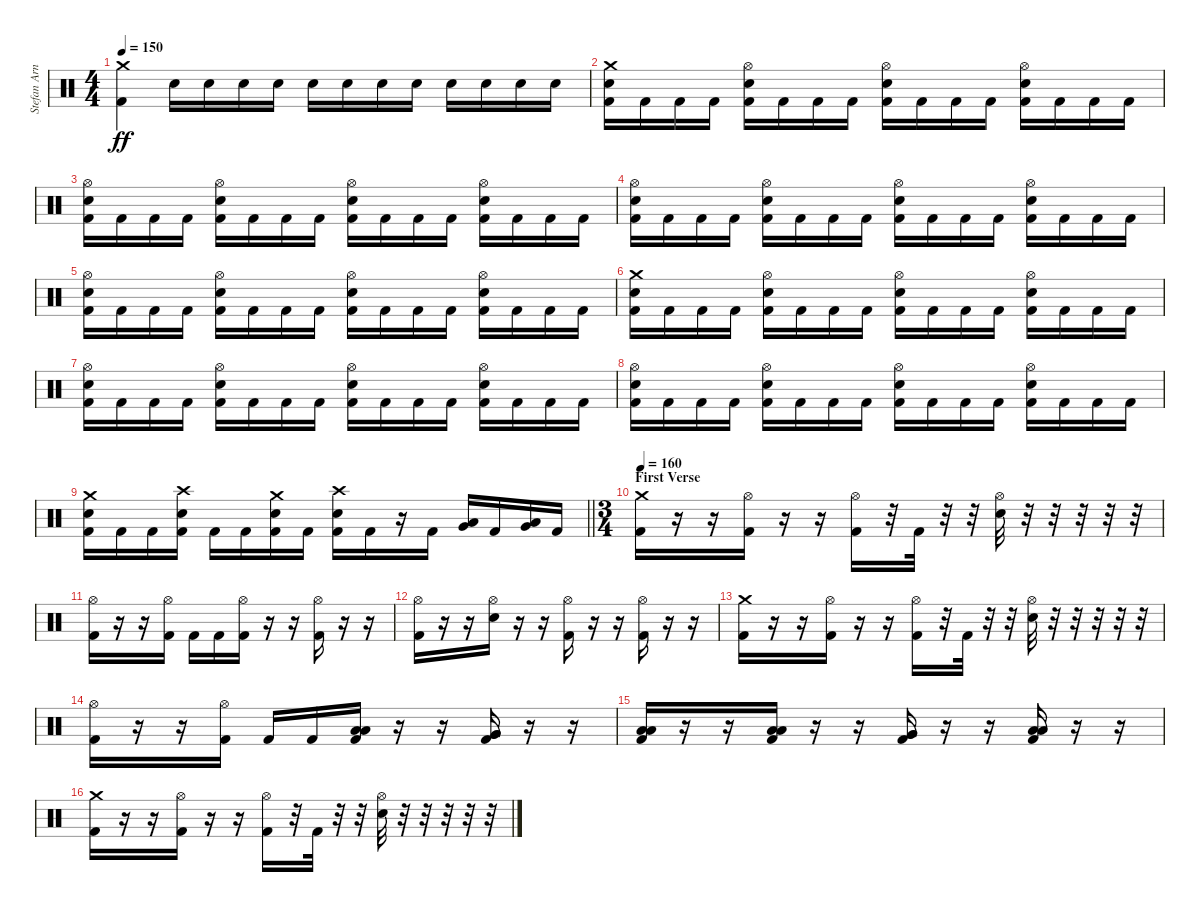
\track ("Stefan Arnold" "Stefan Arn") {instrument percussion}
\staff {score}
\articulation defaults
\ts (4 4)
\tempo 150
\clef neutral
\ks c
("Crash medium (hit)" "Kick (hit) 2").4{dy ff} "Electric Snare (hit)".16 "Electric Snare (hit)".16 "Electric Snare (hit)".16 "Electric Snare (hit)".16 "Electric Snare (hit)".16 "Electric Snare (hit)".16 "Electric Snare (hit)".16 "Electric Snare (hit)".16 "Electric Snare (hit)".16 "Electric Snare (hit)".16 "Electric Snare (hit)".16 "Electric Snare (hit)".16 |
("Crash medium (hit)" "Electric Snare (hit)" "Kick (hit) 2").16 "Kick (hit) 2".16 "Kick (hit) 2".16 "Kick (hit) 2".16 ("Hi-Hat (open)" "Electric Snare (hit)" "Kick (hit) 2").16 "Kick (hit) 2".16 "Kick (hit) 2".16 "Kick (hit) 2".16 ("Hi-Hat (open)" "Electric Snare (hit)" "Kick (hit) 2").16 "Kick (hit) 2".16 "Kick (hit) 2".16 "Kick (hit) 2".16 ("Hi-Hat (open)" "Electric Snare (hit)" "Kick (hit) 2").16 "Kick (hit) 2".16 "Kick (hit) 2".16 "Kick (hit) 2".16 |
("Hi-Hat (open)" "Electric Snare (hit)" "Kick (hit) 2").16 "Kick (hit) 2".16 "Kick (hit) 2".16 "Kick (hit) 2".16 ("Hi-Hat (open)" "Electric Snare (hit)" "Kick (hit) 2").16 "Kick (hit) 2".16 "Kick (hit) 2".16 "Kick (hit) 2".16 ("Hi-Hat (open)" "Electric Snare (hit)" "Kick (hit) 2").16 "Kick (hit) 2".16 "Kick (hit) 2".16 "Kick (hit) 2".16 ("Hi-Hat (open)" "Electric Snare (hit)" "Kick (hit) 2").16 "Kick (hit) 2".16 "Kick (hit) 2".16 "Kick (hit) 2".16 |
("Hi-Hat (open)" "Electric Snare (hit)" "Kick (hit) 2").16 "Kick (hit) 2".16 "Kick (hit) 2".16 "Kick (hit) 2".16 ("Hi-Hat (open)" "Electric Snare (hit)" "Kick (hit) 2").16 "Kick (hit) 2".16 "Kick (hit) 2".16 "Kick (hit) 2".16 ("Hi-Hat (open)" "Electric Snare (hit)" "Kick (hit) 2").16 "Kick (hit) 2".16 "Kick (hit) 2".16 "Kick (hit) 2".16 ("Hi-Hat (open)" "Electric Snare (hit)" "Kick (hit) 2").16 "Kick (hit) 2".16 "Kick (hit) 2".16 "Kick (hit) 2".16 |
("Hi-Hat (open)" "Electric Snare (hit)" "Kick (hit) 2").16 "Kick (hit) 2".16 "Kick (hit) 2".16 "Kick (hit) 2".16 ("Hi-Hat (open)" "Electric Snare (hit)" "Kick (hit) 2").16 "Kick (hit) 2".16 "Kick (hit) 2".16 "Kick (hit) 2".16 ("Hi-Hat (open)" "Electric Snare (hit)" "Kick (hit) 2").16 "Kick (hit) 2".16 "Kick (hit) 2".16 "Kick (hit) 2".16 ("Hi-Hat (open)" "Electric Snare (hit)" "Kick (hit) 2").16 "Kick (hit) 2".16 "Kick (hit) 2".16 "Kick (hit) 2".16 |
("Crash medium (hit)" "Electric Snare (hit)" "Kick (hit) 2").16 "Kick (hit) 2".16 "Kick (hit) 2".16 "Kick (hit) 2".16 ("Hi-Hat (open)" "Electric Snare (hit)" "Kick (hit) 2").16 "Kick (hit) 2".16 "Kick (hit) 2".16 "Kick (hit) 2".16 ("Hi-Hat (open)" "Electric Snare (hit)" "Kick (hit) 2").16 "Kick (hit) 2".16 "Kick (hit) 2".16 "Kick (hit) 2".16 ("Hi-Hat (open)" "Electric Snare (hit)" "Kick (hit) 2").16 "Kick (hit) 2".16 "Kick (hit) 2".16 "Kick (hit) 2".16 |
("Hi-Hat (open)" "Electric Snare (hit)" "Kick (hit) 2").16 "Kick (hit) 2".16 "Kick (hit) 2".16 "Kick (hit) 2".16 ("Hi-Hat (open)" "Electric Snare (hit)" "Kick (hit) 2").16 "Kick (hit) 2".16 "Kick (hit) 2".16 "Kick (hit) 2".16 ("Hi-Hat (open)" "Electric Snare (hit)" "Kick (hit) 2").16 "Kick (hit) 2".16 "Kick (hit) 2".16 "Kick (hit) 2".16 ("Hi-Hat (open)" "Electric Snare (hit)" "Kick (hit) 2").16 "Kick (hit) 2".16 "Kick (hit) 2".16 "Kick (hit) 2".16 |
("Hi-Hat (open)" "Electric Snare (hit)" "Kick (hit) 2").16 "Kick (hit) 2".16 "Kick (hit) 2".16 "Kick (hit) 2".16 ("Hi-Hat (open)" "Electric Snare (hit)" "Kick (hit) 2").16 "Kick (hit) 2".16 "Kick (hit) 2".16 "Kick (hit) 2".16 ("Hi-Hat (open)" "Electric Snare (hit)" "Kick (hit) 2").16 "Kick (hit) 2".16 "Kick (hit) 2".16 "Kick (hit) 2".16 ("Hi-Hat (open)" "Electric Snare (hit)" "Kick (hit) 2").16 "Kick (hit) 2".16 "Kick (hit) 2".16 "Kick (hit) 2".16 |
\barLineRight lightlight
("Crash medium (hit)" "Electric Snare (hit)" "Kick (hit) 2").16 "Kick (hit) 2".16 "Kick (hit) 2".16 ("Crash high (hit)" "Electric Snare (hit)" "Kick (hit) 2").16 "Kick (hit) 2".16 "Kick (hit) 2".16 ("Crash medium (hit)" "Electric Snare (hit)" "Kick (hit) 2").16 "Kick (hit) 2".16 ("Crash high (hit)" "Electric Snare (hit)" "Kick (hit) 2").16 "Kick (hit) 2".16 r.16 "Kick (hit) 2".16 ("Very Low Tom (hit)" "Low Tom (hit)").16 "Kick (hit) 2".16 ("Very Low Tom (hit)" "Low Tom (hit)").16 "Kick (hit) 2".16 |
\ts (3 4)
\section ("" "First Verse")
\tempo 160
("Crash medium (hit)" "Kick (hit) 2").16 r.16 r.16 ("Hi-Hat (open)" "Kick (hit) 2").16 r.16 r.16 ("Hi-Hat (open)" "Kick (hit) 2").16 r.32 "Kick (hit) 2".32 r.32 r.32 ("Hi-Hat (open)" "Electric Snare (hit)").32 r.32 r.32 r.32 r.32 r.32 |
("Hi-Hat (open)" "Kick (hit) 2").16 r.16 r.16 ("Hi-Hat (open)" "Kick (hit) 2").16 "Kick (hit) 2".16 "Kick (hit) 2".16 ("Hi-Hat (open)" "Kick (hit) 2").16 r.16 r.16 ("Hi-Hat (open)" "Kick (hit) 2").16 r.16 r.16 |
("Hi-Hat (open)" "Kick (hit) 2").16 r.16 r.16 ("Hi-Hat (open)" "Electric Snare (hit)").16 r.16 r.16 ("Hi-Hat (open)" "Kick (hit) 2").16 r.16 r.16 ("Hi-Hat (open)" "Kick (hit) 2").16 r.16 r.16 |
("Crash medium (hit)" "Kick (hit) 2").16 r.16 r.16 ("Hi-Hat (open)" "Kick (hit) 2").16 r.16 r.16 ("Hi-Hat (open)" "Kick (hit) 2").16 r.32 "Kick (hit) 2".32 r.32 r.32 ("Hi-Hat (open)" "Electric Snare (hit)").32 r.32 r.32 r.32 r.32 r.32 |
("Hi-Hat (open)" "Kick (hit) 2").16 r.16 r.16 ("Hi-Hat (open)" "Kick (hit) 2").16 "Kick (hit) 2".16 "Kick (hit) 2".16 ("Low Tom (hit)" "Low Tom (hit)" "Kick (hit) 2").16 r.16 r.16 ("Very Low Tom (hit)" "Very Low Tom (hit)" "Kick (hit) 2").16 r.16 r.16 |
("Low Floor Tom (hit)" "Low Floor Tom (hit)" "Kick (hit) 2").16 r.16 r.16 ("Low Tom (hit)" "Low Tom (hit)" "Kick (hit) 2").16 r.16 r.16 ("Very Low Tom (hit)" "Very Low Tom (hit)" "Kick (hit) 2").16 r.16 r.16 ("Low Floor Tom (hit)" "Low Floor Tom (hit)" "Kick (hit) 2").16 r.16 r.16 |
("Crash medium (hit)" "Kick (hit) 2").16 r.16 r.16 ("Hi-Hat (open)" "Kick (hit) 2").16 r.16 r.16 ("Hi-Hat (open)" "Kick (hit) 2").16 r.32 "Kick (hit) 2".32 r.32 r.32 ("Hi-Hat (open)" "Electric Snare (hit)").32 r.32 r.32 r.32 r.32 r.32
